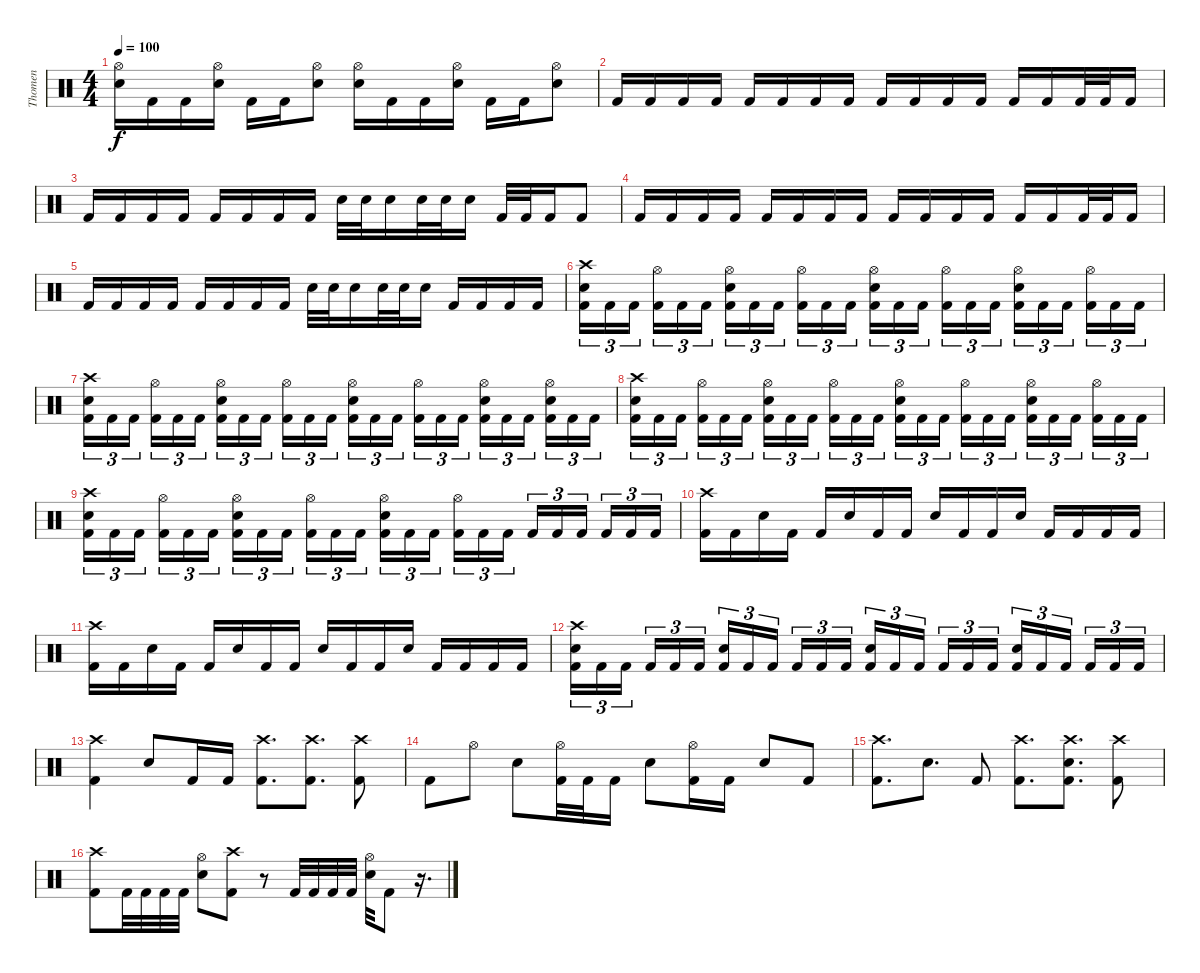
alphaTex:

\track ("Thomen" "Thomen") {instrument percussion}
\staff {score}
\articulation defaults
\ts (4 4)
\tempo 100
\clef neutral
\ks c
("Hi-Hat (open)" "Snare (hit) 2").16{dy f} "Kick (hit) 2".16 "Kick (hit) 2".16 ("Hi-Hat (open)" "Snare (hit) 2").16 "Kick (hit) 2".16 "Kick (hit) 2".16 ("Hi-Hat (open)" "Snare (hit) 2").8 ("Hi-Hat (open)" "Snare (hit) 2").16 "Kick (hit) 2".16 "Kick (hit) 2".16 ("Hi-Hat (open)" "Snare (hit) 2").16 "Kick (hit) 2".16 "Kick (hit) 2".16 ("Hi-Hat (open)" "Snare (hit) 2").8 |
"Kick (hit) 2".16 "Kick (hit) 2".16 "Kick (hit) 2".16 "Kick (hit) 2".16 "Kick (hit) 2".16 "Kick (hit) 2".16 "Kick (hit) 2".16 "Kick (hit) 2".16 "Kick (hit) 2".16 "Kick (hit) 2".16 "Kick (hit) 2".16 "Kick (hit) 2".16 "Kick (hit) 2".16 "Kick (hit) 2".16 "Kick (hit) 2".32 "Kick (hit) 2".32 "Kick (hit) 2".16 |
"Kick (hit) 2".16 "Kick (hit) 2".16 "Kick (hit) 2".16 "Kick (hit) 2".16 "Kick (hit) 2".16 "Kick (hit) 2".16 "Kick (hit) 2".16 "Kick (hit) 2".16 "Snare (hit) 2".32 "Snare (hit) 2".32 "Snare (hit) 2".16 "Snare (hit) 2".32 "Snare (hit) 2".32 "Snare (hit) 2".16 "Kick (hit) 2".32 "Kick (hit) 2".32 "Kick (hit) 2".16 "Kick (hit) 2".8 |
"Kick (hit) 2".16 "Kick (hit) 2".16 "Kick (hit) 2".16 "Kick (hit) 2".16 "Kick (hit) 2".16 "Kick (hit) 2".16 "Kick (hit) 2".16 "Kick (hit) 2".16 "Kick (hit) 2".16 "Kick (hit) 2".16 "Kick (hit) 2".16 "Kick (hit) 2".16 "Kick (hit) 2".16 "Kick (hit) 2".16 "Kick (hit) 2".32 "Kick (hit) 2".32 "Kick (hit) 2".16 |
"Kick (hit) 2".16 "Kick (hit) 2".16 "Kick (hit) 2".16 "Kick (hit) 2".16 "Kick (hit) 2".16 "Kick (hit) 2".16 "Kick (hit) 2".16 "Kick (hit) 2".16 "Snare (hit) 2".32 "Snare (hit) 2".32 "Snare (hit) 2".16 "Snare (hit) 2".32 "Snare (hit) 2".32 "Snare (hit) 2".16 "Kick (hit) 2".16 "Kick (hit) 2".16 "Kick (hit) 2".16 "Kick (hit) 2".16 |
("Crash high (hit)" "Snare (hit) 2" "Kick (hit) 2").16{tu (3 2)} "Kick (hit) 2".16{tu (3 2)} "Kick (hit) 2".16{tu (3 2) beam splitsecondary} ("Hi-Hat (open)" "Kick (hit) 2").16{tu (3 2)} "Kick (hit) 2".16{tu (3 2)} "Kick (hit) 2".16{tu (3 2)} ("Hi-Hat (open)" "Snare (hit) 2" "Kick (hit) 2").16{tu (3 2)} "Kick (hit) 2".16{tu (3 2)} "Kick (hit) 2".16{tu (3 2) beam splitsecondary} ("Hi-Hat (open)" "Kick (hit) 2").16{tu (3 2)} "Kick (hit) 2".16{tu (3 2)} "Kick (hit) 2".16{tu (3 2)} ("Hi-Hat (open)" "Snare (hit) 2" "Kick (hit) 2").16{tu (3 2)} "Kick (hit) 2".16{tu (3 2)} "Kick (hit) 2".16{tu (3 2) beam splitsecondary} ("Hi-Hat (open)" "Kick (hit) 2").16{tu (3 2)} "Kick (hit) 2".16{tu (3 2)} "Kick (hit) 2".16{tu (3 2)} ("Hi-Hat (open)" "Snare (hit) 2" "Kick (hit) 2").16{tu (3 2)} "Kick (hit) 2".16{tu (3 2)} "Kick (hit) 2".16{tu (3 2) beam splitsecondary} ("Hi-Hat (open)" "Kick (hit) 2").16{tu (3 2)} "Kick (hit) 2".16{tu (3 2)} "Kick (hit) 2".16{tu (3 2)} |
("Crash high (hit)" "Snare (hit) 2" "Kick (hit) 2").16{tu (3 2)} "Kick (hit) 2".16{tu (3 2)} "Kick (hit) 2".16{tu (3 2) beam splitsecondary} ("Hi-Hat (open)" "Kick (hit) 2").16{tu (3 2)} "Kick (hit) 2".16{tu (3 2)} "Kick (hit) 2".16{tu (3 2)} ("Hi-Hat (open)" "Snare (hit) 2" "Kick (hit) 2").16{tu (3 2)} "Kick (hit) 2".16{tu (3 2)} "Kick (hit) 2".16{tu (3 2) beam splitsecondary} ("Hi-Hat (open)" "Kick (hit) 2").16{tu (3 2)} "Kick (hit) 2".16{tu (3 2)} "Kick (hit) 2".16{tu (3 2)} ("Hi-Hat (open)" "Snare (hit) 2" "Kick (hit) 2").16{tu (3 2)} "Kick (hit) 2".16{tu (3 2)} "Kick (hit) 2".16{tu (3 2) beam splitsecondary} ("Hi-Hat (open)" "Kick (hit) 2").16{tu (3 2)} "Kick (hit) 2".16{tu (3 2)} "Kick (hit) 2".16{tu (3 2)} ("Hi-Hat (open)" "Snare (hit) 2" "Kick (hit) 2").16{tu (3 2)} "Kick (hit) 2".16{tu (3 2)} "Kick (hit) 2".16{tu (3 2) beam splitsecondary} ("Hi-Hat (open)" "Snare (hit) 2" "Kick (hit) 2").16{tu (3 2)} "Kick (hit) 2".16{tu (3 2)} "Kick (hit) 2".16{tu (3 2)} |
("Crash high (hit)" "Snare (hit) 2" "Kick (hit) 2").16{tu (3 2)} "Kick (hit) 2".16{tu (3 2)} "Kick (hit) 2".16{tu (3 2) beam splitsecondary} ("Hi-Hat (open)" "Kick (hit) 2").16{tu (3 2)} "Kick (hit) 2".16{tu (3 2)} "Kick (hit) 2".16{tu (3 2)} ("Hi-Hat (open)" "Snare (hit) 2" "Kick (hit) 2").16{tu (3 2)} "Kick (hit) 2".16{tu (3 2)} "Kick (hit) 2".16{tu (3 2) beam splitsecondary} ("Hi-Hat (open)" "Kick (hit) 2").16{tu (3 2)} "Kick (hit) 2".16{tu (3 2)} "Kick (hit) 2".16{tu (3 2)} ("Hi-Hat (open)" "Snare (hit) 2" "Kick (hit) 2").16{tu (3 2)} "Kick (hit) 2".16{tu (3 2)} "Kick (hit) 2".16{tu (3 2) beam splitsecondary} ("Hi-Hat (open)" "Kick (hit) 2").16{tu (3 2)} "Kick (hit) 2".16{tu (3 2)} "Kick (hit) 2".16{tu (3 2)} ("Hi-Hat (open)" "Snare (hit) 2" "Kick (hit) 2").16{tu (3 2)} "Kick (hit) 2".16{tu (3 2)} "Kick (hit) 2".16{tu (3 2) beam splitsecondary} ("Hi-Hat (open)" "Kick (hit) 2").16{tu (3 2)} "Kick (hit) 2".16{tu (3 2)} "Kick (hit) 2".16{tu (3 2)} |
("Crash high (hit)" "Snare (hit) 2" "Kick (hit) 2").16{tu (3 2)} "Kick (hit) 2".16{tu (3 2)} "Kick (hit) 2".16{tu (3 2) beam splitsecondary} ("Hi-Hat (open)" "Kick (hit) 2").16{tu (3 2)} "Kick (hit) 2".16{tu (3 2)} "Kick (hit) 2".16{tu (3 2)} ("Hi-Hat (open)" "Snare (hit) 2" "Kick (hit) 2").16{tu (3 2)} "Kick (hit) 2".16{tu (3 2)} "Kick (hit) 2".16{tu (3 2) beam splitsecondary} ("Hi-Hat (open)" "Kick (hit) 2").16{tu (3 2)} "Kick (hit) 2".16{tu (3 2)} "Kick (hit) 2".16{tu (3 2)} ("Hi-Hat (open)" "Snare (hit) 2" "Kick (hit) 2").16{tu (3 2)} "Kick (hit) 2".16{tu (3 2)} "Kick (hit) 2".16{tu (3 2) beam splitsecondary} ("Hi-Hat (open)" "Kick (hit) 2").16{tu (3 2)} "Kick (hit) 2".16{tu (3 2)} "Kick (hit) 2".16{tu (3 2)} "Kick (hit) 2".16{tu (3 2)} "Kick (hit) 2".16{tu (3 2)} "Kick (hit) 2".16{tu (3 2) beam splitsecondary} "Kick (hit) 2".16{tu (3 2)} "Kick (hit) 2".16{tu (3 2)} "Kick (hit) 2".16{tu (3 2)} |
("Crash high (hit)" "Kick (hit) 2").16 "Kick (hit) 2".16 "Snare (hit) 2".16 "Kick (hit) 2".16 "Kick (hit) 2".16 "Snare (hit) 2".16 "Kick (hit) 2".16 "Kick (hit) 2".16 "Snare (hit) 2".16 "Kick (hit) 2".16 "Kick (hit) 2".16 "Snare (hit) 2".16 "Kick (hit) 2".16 "Kick (hit) 2".16 "Kick (hit) 2".16 "Kick (hit) 2".16 |
("Crash high (hit)" "Kick (hit) 2").16 "Kick (hit) 2".16 "Snare (hit) 2".16 "Kick (hit) 2".16 "Kick (hit) 2".16 "Snare (hit) 2".16 "Kick (hit) 2".16 "Kick (hit) 2".16 "Snare (hit) 2".16 "Kick (hit) 2".16 "Kick (hit) 2".16 "Snare (hit) 2".16 "Kick (hit) 2".16 "Kick (hit) 2".16 "Kick (hit) 2".16 "Kick (hit) 2".16 |
("Crash high (hit)" "Snare (hit) 2" "Kick (hit) 2").16{tu (3 2)} "Kick (hit) 2".16{tu (3 2)} "Kick (hit) 2".16{tu (3 2) beam splitsecondary} "Kick (hit) 2".16{tu (3 2)} "Kick (hit) 2".16{tu (3 2)} "Kick (hit) 2".16{tu (3 2)} ("Snare (hit) 2" "Kick (hit) 2").16{tu (3 2)} "Kick (hit) 2".16{tu (3 2)} "Kick (hit) 2".16{tu (3 2) beam splitsecondary} "Kick (hit) 2".16{tu (3 2)} "Kick (hit) 2".16{tu (3 2)} "Kick (hit) 2".16{tu (3 2)} ("Snare (hit) 2" "Kick (hit) 2").16{tu (3 2)} "Kick (hit) 2".16{tu (3 2)} "Kick (hit) 2".16{tu (3 2) beam splitsecondary} "Kick (hit) 2".16{tu (3 2)} "Kick (hit) 2".16{tu (3 2)} "Kick (hit) 2".16{tu (3 2)} ("Snare (hit) 2" "Kick (hit) 2").16{tu (3 2)} "Kick (hit) 2".16{tu (3 2)} "Kick (hit) 2".16{tu (3 2) beam splitsecondary} "Kick (hit) 2".16{tu (3 2)} "Kick (hit) 2".16{tu (3 2)} "Kick (hit) 2".16{tu (3 2)} |
("Crash high (hit)" "Kick (hit) 2").4 "Snare (hit) 2".8 "Kick (hit) 2".16 "Kick (hit) 2".16 ("Crash high (hit)" "Kick (hit) 2").8{d} ("Crash high (hit)" "Kick (hit) 2").8{d} ("Crash high (hit)" "Kick (hit) 2").8 |
"Kick (hit) 2".8 "Hi-Hat (open)".8 "Snare (hit) 2".8 ("Hi-Hat (open)" "Kick (hit) 2").32 "Kick (hit) 2".32 "Kick (hit) 2".16 "Snare (hit) 2".8 ("Hi-Hat (open)" "Kick (hit) 2").16 "Kick (hit) 2".16 "Snare (hit) 2".8 "Kick (hit) 2".8 |
("Crash high (hit)" "Kick (hit) 2").8{d} "Snare (hit) 2".8{d} "Kick (hit) 2".8 ("Crash high (hit)" "Kick (hit) 2").8{d} ("Crash high (hit)" "Snare (hit) 2" "Kick (hit) 2").8{d} ("Crash high (hit)" "Kick (hit) 2").8 |
("Crash high (hit)" "Kick (hit) 2").8 "Kick (hit) 2".32 "Kick (hit) 2".32 "Kick (hit) 2".32 "Kick (hit) 2".32 ("Hi-Hat (open)" "Snare (hit) 2").8 ("Crash high (hit)" "Kick (hit) 2").8 r.8 "Kick (hit) 2".32 "Kick (hit) 2".32 "Kick (hit) 2".32 "Kick (hit) 2".32 ("Hi-Hat (open)" "Snare (hit) 2").32 "Kick (hit) 2".8 r.16{d}
